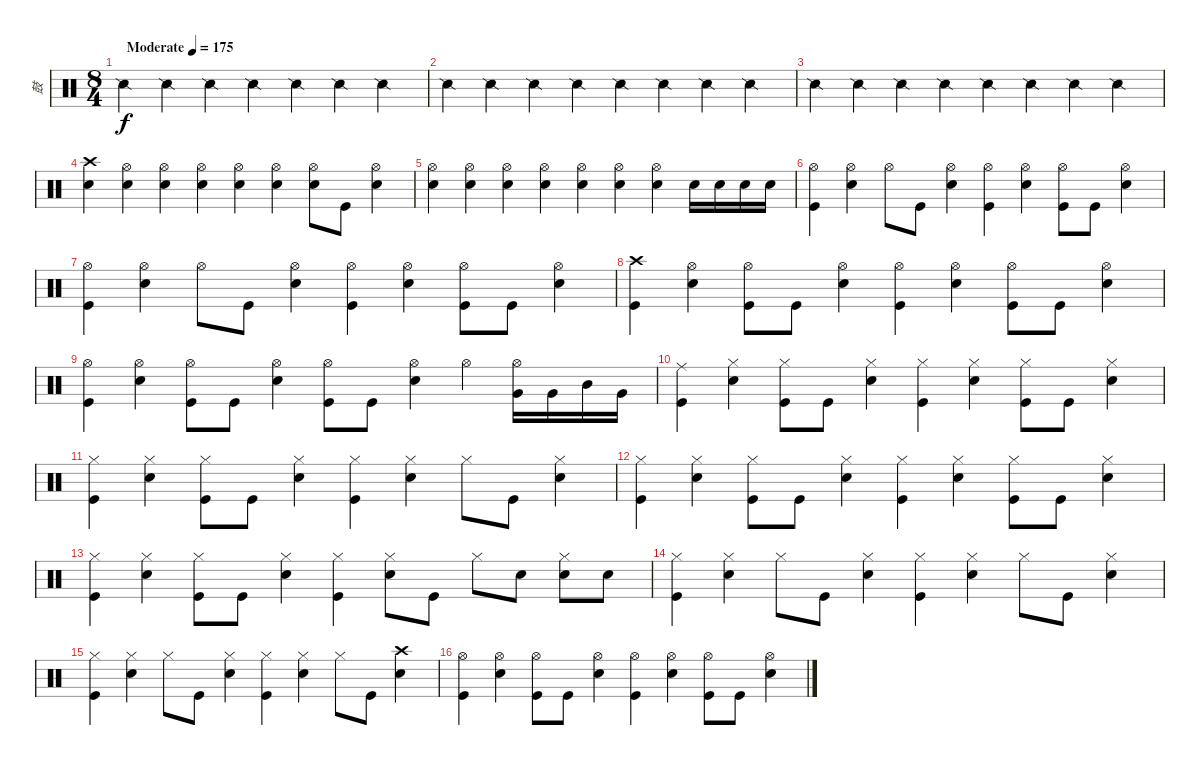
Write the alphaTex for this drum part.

\track ("鼓" "鼓") {instrument percussion}
\staff {score}
\articulation defaults
\ts (8 4)
\tempo (175 "Moderate")
\clef neutral
\ks c "Snare (side stick) 2".4{dy f} "Snare (side stick) 2".4 "Snare (side stick) 2".4 "Snare (side stick) 2".4 "Snare (side stick) 2".4 "Snare (side stick) 2".4 "Snare (side stick) 2".4
|
"Snare (side stick) 2".4 "Snare (side stick) 2".4 "Snare (side stick) 2".4 "Snare (side stick) 2".4 "Snare (side stick) 2".4 "Snare (side stick) 2".4 "Snare (side stick) 2".4 "Snare (side stick) 2".4 |
"Snare (side stick) 2".4 "Snare (side stick) 2".4 "Snare (side stick) 2".4 "Snare (side stick) 2".4 "Snare (side stick) 2".4 "Snare (side stick) 2".4 "Snare (side stick) 2".4 "Snare (side stick) 2".4 |
("Crash high (hit)" "Electric Snare (hit)").4 ("Hi-Hat (open)" "Electric Snare (hit)").4 ("Hi-Hat (open)" "Electric Snare (hit)").4 ("Hi-Hat (open)" "Electric Snare (hit)").4 ("Hi-Hat (open)" "Electric Snare (hit)").4 ("Hi-Hat (open)" "Electric Snare (hit)").4 ("Hi-Hat (open)" "Electric Snare (hit)").8 "Kick (hit)".8 ("Hi-Hat (open)" "Electric Snare (hit)").4 |
("Hi-Hat (open)" "Electric Snare (hit)").4 ("Hi-Hat (open)" "Electric Snare (hit)").4 ("Hi-Hat (open)" "Electric Snare (hit)").4 ("Hi-Hat (open)" "Electric Snare (hit)").4 ("Hi-Hat (open)" "Electric Snare (hit)").4 ("Hi-Hat (open)" "Electric Snare (hit)").4 ("Hi-Hat (open)" "Electric Snare (hit)").4 "Electric Snare (hit)".16 "Electric Snare (hit)".16 "Electric Snare (hit)".16 "Electric Snare (hit)".16 |
("Hi-Hat (open)" "Kick (hit)").4 ("Hi-Hat (open)" "Electric Snare (hit)").4 "Hi-Hat (open)".8 "Kick (hit)".8 ("Hi-Hat (open)" "Electric Snare (hit)").4 ("Hi-Hat (open)" "Kick (hit)").4 ("Hi-Hat (open)" "Electric Snare (hit)").4 ("Hi-Hat (open)" "Kick (hit)").8 "Kick (hit)".8 ("Hi-Hat (open)" "Electric Snare (hit)").4 |
("Hi-Hat (open)" "Kick (hit)").4 ("Hi-Hat (open)" "Electric Snare (hit)").4 "Hi-Hat (open)".8 "Kick (hit)".8 ("Hi-Hat (open)" "Electric Snare (hit)").4 ("Hi-Hat (open)" "Kick (hit)").4 ("Hi-Hat (open)" "Electric Snare (hit)").4 ("Hi-Hat (open)" "Kick (hit)").8 "Kick (hit)".8 ("Hi-Hat (open)" "Electric Snare (hit)").4 |
("Crash high (hit)" "Kick (hit)").4 ("Hi-Hat (open)" "Electric Snare (hit)").4 ("Hi-Hat (open)" "Kick (hit)").8 "Kick (hit)".8 ("Hi-Hat (open)" "Electric Snare (hit)").4 ("Hi-Hat (open)" "Kick (hit)").4 ("Hi-Hat (open)" "Electric Snare (hit)").4 ("Hi-Hat (open)" "Kick (hit)").8 "Kick (hit)".8 ("Hi-Hat (open)" "Electric Snare (hit)").4 |
("Hi-Hat (open)" "Kick (hit)").4 ("Hi-Hat (open)" "Electric Snare (hit)").4 ("Hi-Hat (open)" "Kick (hit)").8 "Kick (hit)".8 ("Hi-Hat (open)" "Electric Snare (hit)").4 ("Hi-Hat (open)" "Kick (hit)").8 "Kick (hit)".8 ("Hi-Hat (open)" "Electric Snare (hit)").4 "Hi-Hat (open)".4 ("Hi-Hat (open)" "Very Low Tom (hit)").16 "Very Low Tom (hit)".16 "Mid Tom (hit)".16 "Very Low Tom (hit)".16 |
("Ride (middle)" "Kick (hit)").4 ("Hi-Hat (closed)" "Electric Snare (hit)").4 ("Hi-Hat (closed)" "Kick (hit)").8 "Kick (hit)".8 ("Hi-Hat (closed)" "Electric Snare (hit)").4 ("Hi-Hat (closed)" "Kick (hit)").4 ("Hi-Hat (closed)" "Electric Snare (hit)").4 ("Hi-Hat (closed)" "Kick (hit)").8 "Kick (hit)".8 ("Hi-Hat (closed)" "Electric Snare (hit)").4 |
("Hi-Hat (closed)" "Kick (hit)").4 ("Hi-Hat (closed)" "Electric Snare (hit)").4 ("Hi-Hat (closed)" "Kick (hit)").8 "Kick (hit)".8 ("Hi-Hat (closed)" "Electric Snare (hit)").4 ("Hi-Hat (closed)" "Kick (hit)").4 ("Hi-Hat (closed)" "Electric Snare (hit)").4 "Hi-Hat (closed)".8 "Kick (hit)".8 ("Hi-Hat (closed)" "Electric Snare (hit)").4 |
("Hi-Hat (closed)" "Kick (hit)").4 ("Hi-Hat (closed)" "Electric Snare (hit)").4 ("Hi-Hat (closed)" "Kick (hit)").8 "Kick (hit)".8 ("Hi-Hat (closed)" "Electric Snare (hit)").4 ("Hi-Hat (closed)" "Kick (hit)").4 ("Hi-Hat (closed)" "Electric Snare (hit)").4 ("Hi-Hat (closed)" "Kick (hit)").8 "Kick (hit)".8 ("Hi-Hat (closed)" "Electric Snare (hit)").4 |
("Hi-Hat (closed)" "Kick (hit)").4 ("Hi-Hat (closed)" "Electric Snare (hit)").4 ("Hi-Hat (closed)" "Kick (hit)").8 "Kick (hit)".8 ("Hi-Hat (closed)" "Electric Snare (hit)").4 ("Hi-Hat (closed)" "Kick (hit)").4 ("Hi-Hat (closed)" "Electric Snare (hit)").8 "Kick (hit)".8 "Hi-Hat (closed)".8 "Electric Snare (hit)".8 ("Hi-Hat (closed)" "Electric Snare (hit)").8 "Electric Snare (hit)".8 |
("Hi-Hat (closed)" "Kick (hit)").4 ("Hi-Hat (closed)" "Electric Snare (hit)").4 "Hi-Hat (closed)".8 "Kick (hit)".8 ("Hi-Hat (closed)" "Electric Snare (hit)").4 ("Hi-Hat (closed)" "Kick (hit)").4 ("Hi-Hat (closed)" "Electric Snare (hit)").4 "Hi-Hat (closed)".8 "Kick (hit)".8 ("Hi-Hat (closed)" "Electric Snare (hit)").4 |
("Hi-Hat (closed)" "Kick (hit)").4 ("Hi-Hat (closed)" "Electric Snare (hit)").4 "Hi-Hat (closed)".8 "Kick (hit)".8 ("Hi-Hat (closed)" "Electric Snare (hit)").4 ("Hi-Hat (closed)" "Kick (hit)").4 ("Hi-Hat (closed)" "Electric Snare (hit)").4 "Hi-Hat (closed)".8 "Kick (hit)".8 ("Crash high (hit)" "Electric Snare (hit)").4 |
("Hi-Hat (open)" "Kick (hit)").4 ("Hi-Hat (open)" "Electric Snare (hit)").4 ("Hi-Hat (open)" "Kick (hit)").8 "Kick (hit)".8 ("Hi-Hat (open)" "Electric Snare (hit)").4 ("Hi-Hat (open)" "Kick (hit)").4 ("Hi-Hat (open)" "Electric Snare (hit)").4 ("Hi-Hat (open)" "Kick (hit)").8 "Kick (hit)".8 ("Hi-Hat (open)" "Electric Snare (hit)").4
